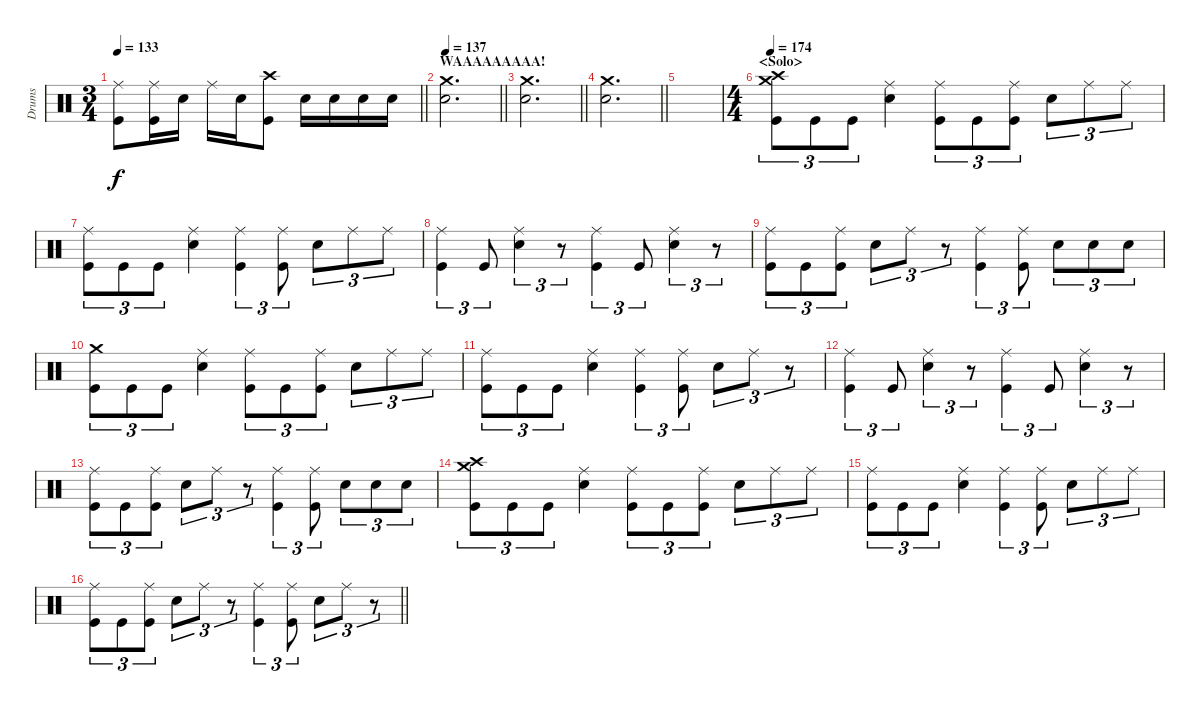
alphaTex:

\track ("Drums" "Drums") {instrument percussion}
\staff {score}
\articulation defaults
\ts (3 4)
\tempo 133
\clef neutral
\barLineRight lightlight
\ks c
("Ride (middle)" "Kick (hit)").8{dy f} ("Ride (middle)" "Kick (hit)").16 "Snare (hit) 2".16 "Ride (middle)".16 "Snare (hit) 2".16 ("Crash high (hit)" "Kick (hit)").8 "Snare (hit) 2".16 "Snare (hit) 2".16 "Snare (hit) 2".16 "Snare (hit) 2".16 |
\section ("" "WAAAAAAAAA!")
\tempo 137
\barLineRight lightlight
("Crash medium (hit)" "Snare (hit) 2").2{d} |
\barLineRight lightlight
("Crash medium (hit)" "Snare (hit) 2").2{d} |
\barLineRight lightlight
("Crash medium (hit)" "Snare (hit) 2").2{d} |
|
\ts (4 4)
\section ("" "<Solo>")
\tempo 174
("Crash medium (hit)" "Crash high (hit)" "Kick (hit)").8{tu (3 2)} "Kick (hit)".8{tu (3 2)} "Kick (hit)".8{tu (3 2)} ("Ride (middle)" "Snare (hit) 2").4 ("Ride (middle)" "Kick (hit)").8{tu (3 2)} "Kick (hit)".8{tu (3 2)} ("Ride (middle)" "Kick (hit)").8{tu (3 2)} "Snare (hit) 2".8{tu (3 2)} "Ride (middle)".8{tu (3 2)} "Ride (middle)".8{tu (3 2)} |
("Ride (middle)" "Kick (hit)").8{tu (3 2)} "Kick (hit)".8{tu (3 2)} "Kick (hit)".8{tu (3 2)} ("Ride (middle)" "Snare (hit) 2").4 ("Ride (middle)" "Kick (hit)").4{tu (3 2)} ("Ride (middle)" "Kick (hit)").8{tu (3 2)} "Snare (hit) 2".8{tu (3 2)} "Ride (middle)".8{tu (3 2)} "Ride (middle)".8{tu (3 2)} |
("Ride (middle)" "Kick (hit)").4{tu (3 2)} "Kick (hit)".8{tu (3 2)} ("Ride (middle)" "Snare (hit) 2").4{tu (3 2)} r.8{tu (3 2)} ("Ride (middle)" "Kick (hit)").4{tu (3 2)} "Kick (hit)".8{tu (3 2)} ("Ride (middle)" "Snare (hit) 2").4{tu (3 2)} r.8{tu (3 2)} |
("Ride (middle)" "Kick (hit)").8{tu (3 2)} "Kick (hit)".8{tu (3 2)} ("Ride (middle)" "Kick (hit)").8{tu (3 2)} "Snare (hit) 2".8{tu (3 2)} "Ride (middle)".8{tu (3 2)} r.8{tu (3 2)} ("Ride (middle)" "Kick (hit)").4{tu (3 2)} ("Ride (middle)" "Kick (hit)").8{tu (3 2)} "Snare (hit) 2".8{tu (3 2)} "Snare (hit) 2".8{tu (3 2)} "Snare (hit) 2".8{tu (3 2)} |
("Crash medium (hit)" "Kick (hit)").8{tu (3 2)} "Kick (hit)".8{tu (3 2)} "Kick (hit)".8{tu (3 2)} ("Ride (middle)" "Snare (hit) 2").4 ("Ride (middle)" "Kick (hit)").8{tu (3 2)} "Kick (hit)".8{tu (3 2)} ("Ride (middle)" "Kick (hit)").8{tu (3 2)} "Snare (hit) 2".8{tu (3 2)} "Ride (middle)".8{tu (3 2)} "Ride (middle)".8{tu (3 2)} |
("Ride (middle)" "Kick (hit)").8{tu (3 2)} "Kick (hit)".8{tu (3 2)} "Kick (hit)".8{tu (3 2)} ("Ride (middle)" "Snare (hit) 2").4 ("Ride (middle)" "Kick (hit)").4{tu (3 2)} ("Ride (middle)" "Kick (hit)").8{tu (3 2)} "Snare (hit) 2".8{tu (3 2)} "Ride (middle)".8{tu (3 2)} r.8{tu (3 2)} |
("Ride (middle)" "Kick (hit)").4{tu (3 2)} "Kick (hit)".8{tu (3 2)} ("Ride (middle)" "Snare (hit) 2").4{tu (3 2)} r.8{tu (3 2)} ("Ride (middle)" "Kick (hit)").4{tu (3 2)} "Kick (hit)".8{tu (3 2)} ("Ride (middle)" "Snare (hit) 2").4{tu (3 2)} r.8{tu (3 2)} |
("Ride (middle)" "Kick (hit)").8{tu (3 2)} "Kick (hit)".8{tu (3 2)} ("Ride (middle)" "Kick (hit)").8{tu (3 2)} "Snare (hit) 2".8{tu (3 2)} "Ride (middle)".8{tu (3 2)} r.8{tu (3 2)} ("Ride (middle)" "Kick (hit)").4{tu (3 2)} ("Ride (middle)" "Kick (hit)").8{tu (3 2)} "Snare (hit) 2".8{tu (3 2)} "Snare (hit) 2".8{tu (3 2)} "Snare (hit) 2".8{tu (3 2)} |
("Crash medium (hit)" "Crash high (hit)" "Kick (hit)").8{tu (3 2)} "Kick (hit)".8{tu (3 2)} "Kick (hit)".8{tu (3 2)} ("Ride (middle)" "Snare (hit) 2").4 ("Ride (middle)" "Kick (hit)").8{tu (3 2)} "Kick (hit)".8{tu (3 2)} ("Ride (middle)" "Kick (hit)").8{tu (3 2)} "Snare (hit) 2".8{tu (3 2)} "Ride (middle)".8{tu (3 2)} "Ride (middle)".8{tu (3 2)} |
("Ride (middle)" "Kick (hit)").8{tu (3 2)} "Kick (hit)".8{tu (3 2)} "Kick (hit)".8{tu (3 2)} ("Ride (middle)" "Snare (hit) 2").4 ("Ride (middle)" "Kick (hit)").4{tu (3 2)} ("Ride (middle)" "Kick (hit)").8{tu (3 2)} "Snare (hit) 2".8{tu (3 2)} "Ride (middle)".8{tu (3 2)} "Ride (middle)".8{tu (3 2)} |
\barLineRight lightlight
("Ride (middle)" "Kick (hit)").8{tu (3 2)} "Kick (hit)".8{tu (3 2)} ("Ride (middle)" "Kick (hit)").8{tu (3 2)} "Snare (hit) 2".8{tu (3 2)} "Ride (middle)".8{tu (3 2)} r.8{tu (3 2)} ("Ride (middle)" "Kick (hit)").4{tu (3 2)} ("Ride (middle)" "Kick (hit)").8{tu (3 2)} "Snare (hit) 2".8{tu (3 2)} "Ride (middle)".8{tu (3 2)} r.8{tu (3 2)}
